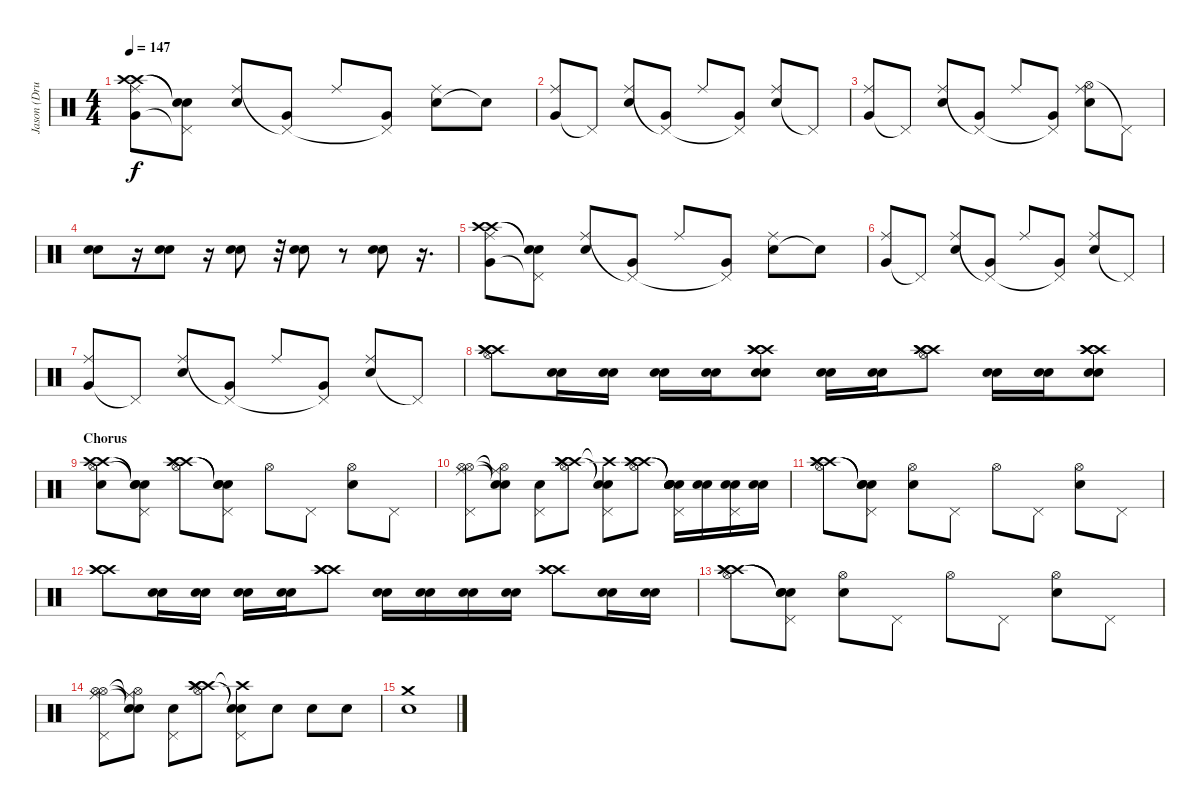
\track ("Jason (Drums)" "Jason (Dru") {instrument percussion}
\staff {score}
\articulation defaults
\ts (4 4)
\tempo 147
\clef neutral
\ks c
("Crash high (hit)" "Crash high (hit)" "Very Low Tom (hit)" "Ride (middle)").8{dy f} ("Snare (hit)"{t} "Snare (hit)"{t} "Pedal Hi-Hat (hit)"{t}).8 ("Electric Snare (hit)" "Ride (middle)").8 ("Very Low Tom (hit)" "Pedal Hi-Hat (hit)"{t}).8 "Ride (middle)".8 ("Very Low Tom (hit)" "Pedal Hi-Hat (hit)"{t}).8 ("Electric Snare (hit)" "Ride (middle)").8 "Snare (hit)"{t}.8 |
("Very Low Tom (hit)" "Ride (middle)").8 "Pedal Hi-Hat (hit)"{t}.8 ("Electric Snare (hit)" "Ride (middle)").8 ("Very Low Tom (hit)" "Pedal Hi-Hat (hit)"{t}).8 "Ride (middle)".8 ("Very Low Tom (hit)" "Pedal Hi-Hat (hit)"{t}).8 ("Electric Snare (hit)" "Ride (middle)").8 "Pedal Hi-Hat (hit)"{t}.8 |
("Very Low Tom (hit)" "Ride (middle)").8 "Pedal Hi-Hat (hit)"{t}.8 ("Electric Snare (hit)" "Ride (middle)").8 ("Very Low Tom (hit)" "Pedal Hi-Hat (hit)"{t}).8 "Ride (middle)".8 ("Very Low Tom (hit)" "Pedal Hi-Hat (hit)"{t}).8 ("Hi-Hat (open)" "Electric Snare (hit)" "Ride (middle)").8 "Pedal Hi-Hat (hit)"{t}.8 |
("Snare (hit) 2" "Electric Snare (hit)").8 r.16 ("Snare (hit) 2" "Electric Snare (hit)").8 r.16 ("Snare (hit) 2" "Electric Snare (hit)").8 r.32 ("Snare (hit) 2" "Electric Snare (hit)").8 r.8 ("Snare (hit) 2" "Electric Snare (hit)").8 r.16{d} |
("Crash high (hit)" "Crash high (hit)" "Very Low Tom (hit)" "Ride (middle)").8 ("Snare (hit)"{t} "Snare (hit)"{t} "Pedal Hi-Hat (hit)"{t}).8 ("Electric Snare (hit)" "Ride (middle)").8 ("Very Low Tom (hit)" "Pedal Hi-Hat (hit)"{t}).8 "Ride (middle)".8 ("Very Low Tom (hit)" "Pedal Hi-Hat (hit)"{t}).8 ("Electric Snare (hit)" "Ride (middle)").8 "Snare (hit)"{t}.8 |
("Very Low Tom (hit)" "Ride (middle)").8 "Pedal Hi-Hat (hit)"{t}.8 ("Electric Snare (hit)" "Ride (middle)").8 ("Very Low Tom (hit)" "Pedal Hi-Hat (hit)"{t}).8 "Ride (middle)".8 ("Very Low Tom (hit)" "Pedal Hi-Hat (hit)"{t}).8 ("Electric Snare (hit)" "Ride (middle)").8 "Pedal Hi-Hat (hit)"{t}.8 |
("Very Low Tom (hit)" "Ride (middle)").8 "Pedal Hi-Hat (hit)"{t}.8 ("Electric Snare (hit)" "Ride (middle)").8 ("Very Low Tom (hit)" "Pedal Hi-Hat (hit)"{t}).8 "Ride (middle)".8 ("Very Low Tom (hit)" "Pedal Hi-Hat (hit)"{t}).8 ("Electric Snare (hit)" "Ride (middle)").8 "Pedal Hi-Hat (hit)"{t}.8 |
("Crash high (hit)" "Crash high (hit)" "Crash high (hit)" "Hi-Hat (open)").8 ("Snare (hit) 2" "Electric Snare (hit)").16 ("Snare (hit) 2" "Electric Snare (hit)").16 ("Snare (hit) 2" "Electric Snare (hit)").16 ("Snare (hit) 2" "Electric Snare (hit)").16 ("Crash high (hit)" "Crash high (hit)" "Crash high (hit)" "Snare (hit) 2" "Electric Snare (hit)").8 ("Snare (hit) 2" "Electric Snare (hit)").16 ("Snare (hit) 2" "Electric Snare (hit)").16 ("Crash high (hit)" "Crash high (hit)" "Crash high (hit)" "Hi-Hat (open)").8 ("Snare (hit) 2" "Electric Snare (hit)").16 ("Snare (hit) 2" "Electric Snare (hit)").16 ("Crash high (hit)" "Crash high (hit)" "Crash high (hit)" "Snare (hit) 2" "Electric Snare (hit)").8 |
\section ("" "Chorus")
("Crash high (hit)" "Crash high (hit)" "Hi-Hat (open)" "Snare (hit) 2").8 ("Snare (hit)"{t} "Snare (hit)"{t} "Snare (hit)"{t} "Pedal Hi-Hat (hit)").8 ("Crash high (hit)" "Crash high (hit)" "Crash high (hit)" "Hi-Hat (open)").8 ("Snare (hit)"{t} "Snare (hit)"{t} "Snare (hit)"{t} "Pedal Hi-Hat (hit)").8 "Hi-Hat (open)".8 "Pedal Hi-Hat (hit)".8 ("Electric Snare (hit)" "Hi-Hat (open)").8 "Pedal Hi-Hat (hit)".8 |
("Ride (middle)" "Hi-Hat (open)" "Hi-Hat (open)" "Pedal Hi-Hat (hit)").8 ("Snare (hit)"{t} "Ride (middle)"{t} "Snare (hit)"{t} "Hi-Hat (open)").8 ("Electric Snare (hit)" "Pedal Hi-Hat (hit)").8 ("Crash high (hit)" "Crash high (hit)" "Crash high (hit)" "Hi-Hat (open)").8 ("Snare (hit)"{t} "Crash high (hit)"{t} "Snare (hit)"{t} "Pedal Hi-Hat (hit)").8 ("Crash high (hit)" "Crash high (hit)" "Crash high (hit)" "Hi-Hat (open)").8 ("Snare (hit)"{t} "Snare (hit) 2"{t} "Snare (hit)"{t} "Pedal Hi-Hat (hit)" "Snare (hit) 2" "Electric Snare (hit)").16 ("Snare (hit) 2" "Electric Snare (hit)").16 ("Pedal Hi-Hat (hit)" "Snare (hit) 2" "Electric Snare (hit)").16 ("Snare (hit) 2" "Electric Snare (hit)").16 |
("Crash high (hit)" "Crash high (hit)" "Crash high (hit)" "Hi-Hat (open)").8 ("Snare (hit)"{t} "Snare (hit)"{t} "Snare (hit)"{t} "Pedal Hi-Hat (hit)").8 ("Electric Snare (hit)" "Hi-Hat (open)").8 "Pedal Hi-Hat (hit)".8 "Hi-Hat (open)".8 "Pedal Hi-Hat (hit)".8 ("Electric Snare (hit)" "Hi-Hat (open)").8 "Pedal Hi-Hat (hit)".8 |
("Crash high (hit)" "Crash high (hit)" "Crash high (hit)").8 ("Snare (hit) 2" "Electric Snare (hit)").16 ("Snare (hit) 2" "Electric Snare (hit)").16 ("Snare (hit) 2" "Electric Snare (hit)").16 ("Snare (hit) 2" "Electric Snare (hit)").16 ("Crash high (hit)" "Crash high (hit)" "Crash high (hit)").8 ("Snare (hit) 2" "Electric Snare (hit)").16 ("Snare (hit) 2" "Electric Snare (hit)").16 ("Snare (hit) 2" "Electric Snare (hit)").16 ("Snare (hit) 2" "Electric Snare (hit)").16 ("Crash high (hit)" "Crash high (hit)" "Crash high (hit)").8 ("Snare (hit) 2" "Electric Snare (hit)").16 ("Snare (hit) 2" "Electric Snare (hit)").16 |
("Crash high (hit)" "Crash high (hit)" "Crash high (hit)" "Hi-Hat (open)").8 ("Snare (hit)"{t} "Snare (hit)"{t} "Snare (hit)"{t} "Pedal Hi-Hat (hit)").8 ("Electric Snare (hit)" "Hi-Hat (open)").8 "Pedal Hi-Hat (hit)".8 "Hi-Hat (open)".8 "Pedal Hi-Hat (hit)".8 ("Electric Snare (hit)" "Hi-Hat (open)").8 "Pedal Hi-Hat (hit)".8 |
("Ride (middle)" "Hi-Hat (open)" "Hi-Hat (open)" "Pedal Hi-Hat (hit)").8 ("Snare (hit)"{t} "Ride (middle)"{t} "Snare (hit)"{t} "Hi-Hat (open)").8 ("Electric Snare (hit)" "Pedal Hi-Hat (hit)").8 ("Crash high (hit)" "Crash high (hit)" "Crash high (hit)" "Hi-Hat (open)").8 ("Snare (hit)"{t} "Crash high (hit)"{t} "Snare (hit)"{t} "Pedal Hi-Hat (hit)").8 "Electric Snare (hit)".8 "Electric Snare (hit)".8 "Electric Snare (hit)".8 |
("Crash medium (hit)" "Electric Snare (hit)").1
